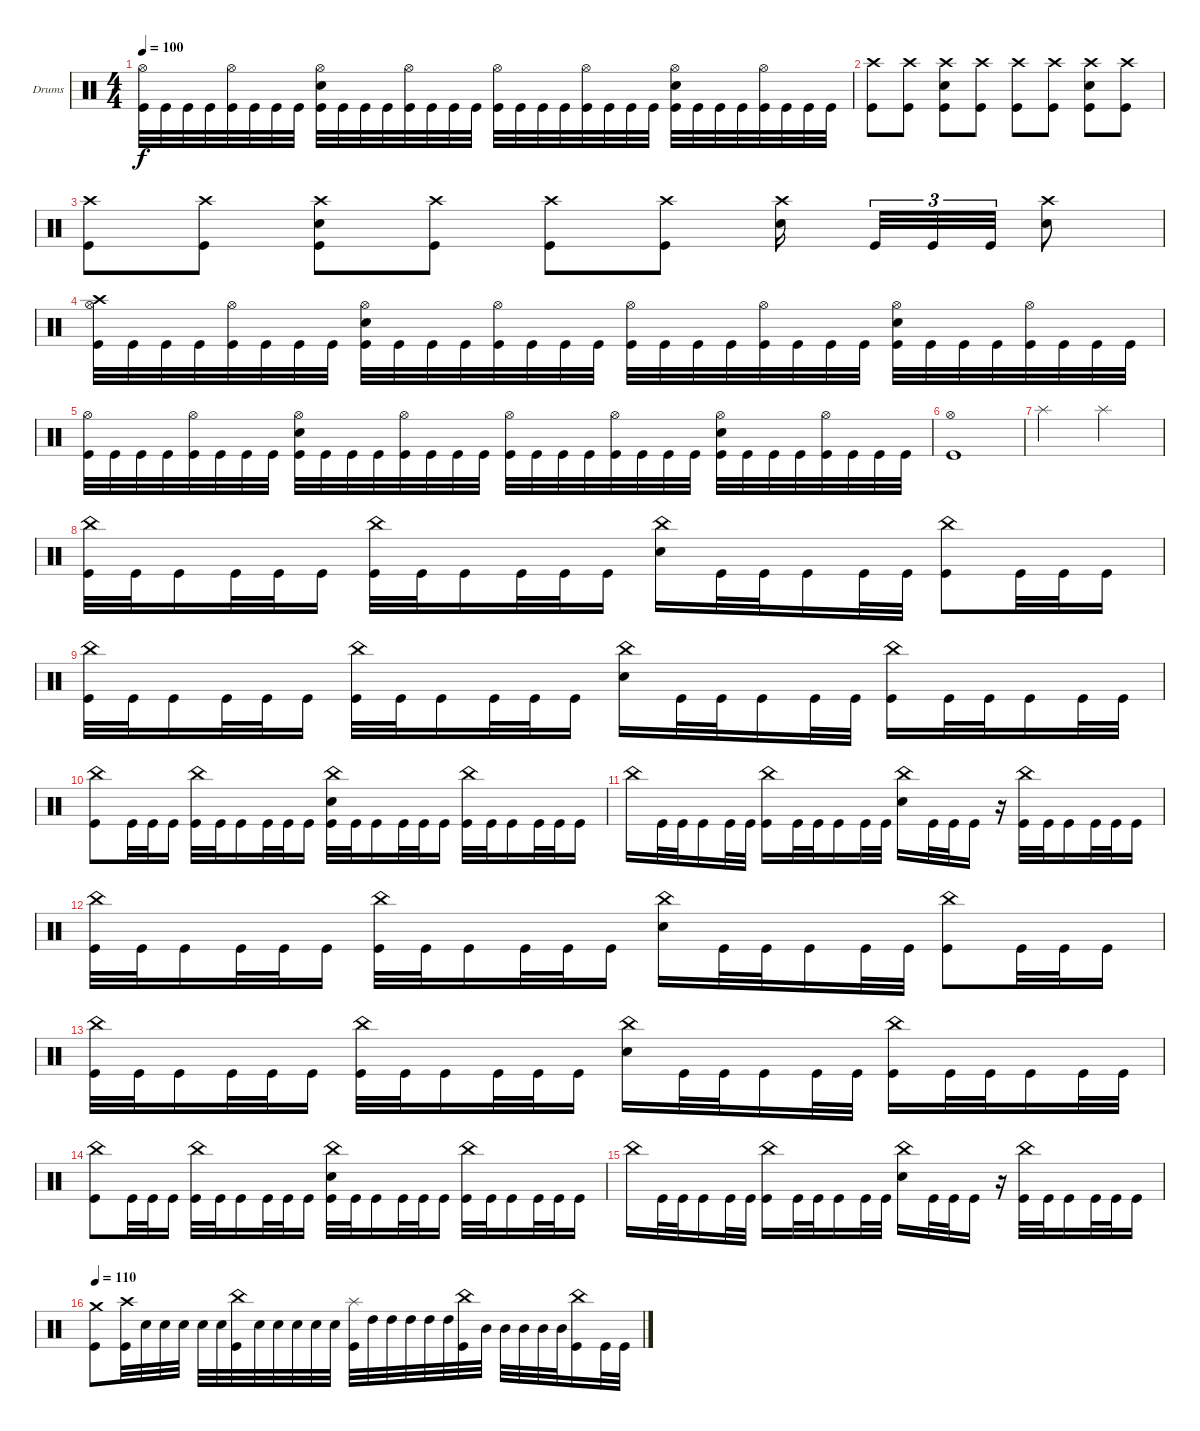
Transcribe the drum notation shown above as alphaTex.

\defaultSystemsLayout 4
\bracketExtendMode groupsimilarinstruments
\firstSystemTrackNameOrientation horizontal
\otherSystemsTrackNameOrientation horizontal
\track ("Drumkit" "Drums") {instrument percussion}
\staff {score}
\articulation defaults
\ts (4 4)
\tempo 100
\clef neutral
\scale
0.701493
\ks c
("Hi-Hat (open)" "Kick (hit)").32{dy f} "Kick (hit)".32 "Kick (hit)".32 "Kick (hit)".32 ("Hi-Hat (open)" "Kick (hit)").32 "Kick (hit)".32 "Kick (hit)".32 "Kick (hit)".32 ("Hi-Hat (open)" "Snare (hit) 2" "Kick (hit)").32 "Kick (hit)".32 "Kick (hit)".32 "Kick (hit)".32 ("Hi-Hat (open)" "Kick (hit)").32 "Kick (hit)".32 "Kick (hit)".32 "Kick (hit)".32 ("Hi-Hat (open)" "Kick (hit)").32 "Kick (hit)".32 "Kick (hit)".32 "Kick (hit)".32 ("Hi-Hat (open)" "Kick (hit)").32 "Kick (hit)".32 "Kick (hit)".32 "Kick (hit)".32 ("Hi-Hat (open)" "Snare (hit) 2" "Kick (hit)").32 "Kick (hit)".32 "Kick (hit)".32 "Kick (hit)".32 ("Hi-Hat (open)" "Kick (hit)").32 "Kick (hit)".32 "Kick (hit)".32 "Kick (hit)".32 |
\scale
0.298507 ("Crash high (hit)" "Kick (hit)").8 ("Crash high (hit)" "Kick (hit)").8 ("Crash high (hit)" "Snare (hit) 2" "Kick (hit)").8 ("Crash high (hit)" "Kick (hit)").8 ("Crash high (hit)" "Kick (hit)").8 ("Crash high (hit)" "Kick (hit)").8 ("Crash high (hit)" "Snare (hit) 2" "Kick (hit)").8 ("Crash high (hit)" "Kick (hit)").8 |
\scale
0.413417 ("Crash high (hit)" "Kick (hit)").8 ("Crash high (hit)" "Kick (hit)").8 ("Crash high (hit)" "Snare (hit) 2" "Kick (hit)").8 ("Crash high (hit)" "Kick (hit)").8 ("Crash high (hit)" "Kick (hit)").8 ("Crash high (hit)" "Kick (hit)").8 ("Crash high (hit)" "Snare (hit) 2").16 "Kick (hit)".32{tu (3 2)} "Kick (hit)".32{tu (3 2)} "Kick (hit)".32{tu (3 2)} ("Crash high (hit)" "Snare (hit) 2").8 |
\scale
0.586583 ("Crash high (hit)" "Hi-Hat (open)" "Kick (hit)").32 "Kick (hit)".32 "Kick (hit)".32 "Kick (hit)".32 ("Hi-Hat (open)" "Kick (hit)").32 "Kick (hit)".32 "Kick (hit)".32 "Kick (hit)".32 ("Hi-Hat (open)" "Snare (hit) 2" "Kick (hit)").32 "Kick (hit)".32 "Kick (hit)".32 "Kick (hit)".32 ("Hi-Hat (open)" "Kick (hit)").32 "Kick (hit)".32 "Kick (hit)".32 "Kick (hit)".32 ("Hi-Hat (open)" "Kick (hit)").32 "Kick (hit)".32 "Kick (hit)".32 "Kick (hit)".32 ("Hi-Hat (open)" "Kick (hit)").32 "Kick (hit)".32 "Kick (hit)".32 "Kick (hit)".32 ("Hi-Hat (open)" "Snare (hit) 2" "Kick (hit)").32 "Kick (hit)".32 "Kick (hit)".32 "Kick (hit)".32 ("Hi-Hat (open)" "Kick (hit)").32 "Kick (hit)".32 "Kick (hit)".32 "Kick (hit)".32 |
\scale
0.866359 ("Hi-Hat (open)" "Kick (hit)").32 "Kick (hit)".32 "Kick (hit)".32 "Kick (hit)".32 ("Hi-Hat (open)" "Kick (hit)").32 "Kick (hit)".32 "Kick (hit)".32 "Kick (hit)".32 ("Hi-Hat (open)" "Snare (hit) 2" "Kick (hit)").32 "Kick (hit)".32 "Kick (hit)".32 "Kick (hit)".32 ("Hi-Hat (open)" "Kick (hit)").32 "Kick (hit)".32 "Kick (hit)".32 "Kick (hit)".32 ("Hi-Hat (open)" "Kick (hit)").32 "Kick (hit)".32 "Kick (hit)".32 "Kick (hit)".32 ("Hi-Hat (open)" "Kick (hit)").32 "Kick (hit)".32 "Kick (hit)".32 "Kick (hit)".32 ("Hi-Hat (open)" "Snare (hit) 2" "Kick (hit)").32 "Kick (hit)".32 "Kick (hit)".32 "Kick (hit)".32 ("Hi-Hat (open)" "Kick (hit)").32 "Kick (hit)".32 "Kick (hit)".32 "Kick (hit)".32 |
\scale
0.133641 ("Hi-Hat (open)" "Kick (hit)").1 |
\scale
0.231738 "Splash (hit)".2 "Splash (hit)".2 |
\scale
0.768262 ("China (hit)" "Kick (hit)").32 "Kick (hit)".32 "Kick (hit)".16 "Kick (hit)".32 "Kick (hit)".32 "Kick (hit)".16 ("China (hit)" "Kick (hit)").32 "Kick (hit)".32 "Kick (hit)".16 "Kick (hit)".32 "Kick (hit)".32 "Kick (hit)".16 ("China (hit)" "Snare (hit) 2").16 "Kick (hit)".32 "Kick (hit)".32 "Kick (hit)".16 "Kick (hit)".32 "Kick (hit)".32 ("China (hit)" "Kick (hit)").8 "Kick (hit)".32 "Kick (hit)".32 "Kick (hit)".16 |
\scale
0.512 ("China (hit)" "Kick (hit)").32 "Kick (hit)".32 "Kick (hit)".16 "Kick (hit)".32 "Kick (hit)".32 "Kick (hit)".16 ("China (hit)" "Kick (hit)").32 "Kick (hit)".32 "Kick (hit)".16 "Kick (hit)".32 "Kick (hit)".32 "Kick (hit)".16 ("China (hit)" "Snare (hit) 2").16 "Kick (hit)".32 "Kick (hit)".32 "Kick (hit)".16 "Kick (hit)".32 "Kick (hit)".32 ("China (hit)" "Kick (hit)").16 "Kick (hit)".32 "Kick (hit)".32 "Kick (hit)".16 "Kick (hit)".32 "Kick (hit)".32 |
\scale
0.488 ("China (hit)" "Kick (hit)").8 "Kick (hit)".32 "Kick (hit)".32 "Kick (hit)".16 ("China (hit)" "Kick (hit)").32 "Kick (hit)".32 "Kick (hit)".16 "Kick (hit)".32 "Kick (hit)".32 "Kick (hit)".16 ("China (hit)" "Snare (hit) 2" "Kick (hit)").32 "Kick (hit)".32 "Kick (hit)".16 "Kick (hit)".32 "Kick (hit)".32 "Kick (hit)".16 ("China (hit)" "Kick (hit)").32 "Kick (hit)".32 "Kick (hit)".16 "Kick (hit)".32 "Kick (hit)".32 "Kick (hit)".16 |
\scale
0.506472 "China (hit)".16 "Kick (hit)".32 "Kick (hit)".32 "Kick (hit)".16 "Kick (hit)".32 "Kick (hit)".32 ("China (hit)" "Kick (hit)").16 "Kick (hit)".32 "Kick (hit)".32 "Kick (hit)".16 "Kick (hit)".32 "Kick (hit)".32 ("China (hit)" "Snare (hit) 2").16 "Kick (hit)".32 "Kick (hit)".32 "Kick (hit)".16 r.16 ("China (hit)" "Kick (hit)").32 "Kick (hit)".32 "Kick (hit)".16 "Kick (hit)".32 "Kick (hit)".32 "Kick (hit)".16 |
\scale
0.493528 ("China (hit)" "Kick (hit)").32 "Kick (hit)".32 "Kick (hit)".16 "Kick (hit)".32 "Kick (hit)".32 "Kick (hit)".16 ("China (hit)" "Kick (hit)").32 "Kick (hit)".32 "Kick (hit)".16 "Kick (hit)".32 "Kick (hit)".32 "Kick (hit)".16 ("China (hit)" "Snare (hit) 2").16 "Kick (hit)".32 "Kick (hit)".32 "Kick (hit)".16 "Kick (hit)".32 "Kick (hit)".32 ("China (hit)" "Kick (hit)").8 "Kick (hit)".32 "Kick (hit)".32 "Kick (hit)".16 |
\scale
0.512 ("China (hit)" "Kick (hit)").32 "Kick (hit)".32 "Kick (hit)".16 "Kick (hit)".32 "Kick (hit)".32 "Kick (hit)".16 ("China (hit)" "Kick (hit)").32 "Kick (hit)".32 "Kick (hit)".16 "Kick (hit)".32 "Kick (hit)".32 "Kick (hit)".16 ("China (hit)" "Snare (hit) 2").16 "Kick (hit)".32 "Kick (hit)".32 "Kick (hit)".16 "Kick (hit)".32 "Kick (hit)".32 ("China (hit)" "Kick (hit)").16 "Kick (hit)".32 "Kick (hit)".32 "Kick (hit)".16 "Kick (hit)".32 "Kick (hit)".32 |
\scale
0.488 ("China (hit)" "Kick (hit)").8 "Kick (hit)".32 "Kick (hit)".32 "Kick (hit)".16 ("China (hit)" "Kick (hit)").32 "Kick (hit)".32 "Kick (hit)".16 "Kick (hit)".32 "Kick (hit)".32 "Kick (hit)".16 ("China (hit)" "Snare (hit) 2" "Kick (hit)").32 "Kick (hit)".32 "Kick (hit)".16 "Kick (hit)".32 "Kick (hit)".32 "Kick (hit)".16 ("China (hit)" "Kick (hit)").32 "Kick (hit)".32 "Kick (hit)".16 "Kick (hit)".32 "Kick (hit)".32 "Kick (hit)".16 |
\scale
0.474242 "China (hit)".16 "Kick (hit)".32 "Kick (hit)".32 "Kick (hit)".16 "Kick (hit)".32 "Kick (hit)".32 ("China (hit)" "Kick (hit)").16 "Kick (hit)".32 "Kick (hit)".32 "Kick (hit)".16 "Kick (hit)".32 "Kick (hit)".32 ("China (hit)" "Snare (hit) 2").16 "Kick (hit)".32 "Kick (hit)".32 "Kick (hit)".16 r.16 ("China (hit)" "Kick (hit)").32 "Kick (hit)".32 "Kick (hit)".16 "Kick (hit)".32 "Kick (hit)".32 "Kick (hit)".16 |
\tempo 110
\scale
0.525758 ("Crash medium (hit)" "Kick (hit)").8 ("Crash high (hit)" "Kick (hit)").32 "Snare (hit) 2".32 "Snare (hit) 2".32 "Snare (hit) 2".32 "Snare (hit) 2".32 "Snare (hit) 2".32 ("China (hit)" "Kick (hit)").32 "Snare (hit) 2".32 "Snare (hit) 2".32 "Snare (hit) 2".32 "Snare (hit) 2".32 "Snare (hit) 2".32 ("Splash (hit)" "Kick (hit)").32 "High Tom (hit)".32 "High Tom (hit)".32 "High Tom (hit)".32 "High Tom (hit)".32 "High Tom (hit)".32 ("China (hit)" "Kick (hit)").32 "Mid Tom (hit)".32 "Mid Tom (hit)".32 "Mid Tom (hit)".32 "Mid Tom (hit)".32 "Mid Tom (hit)".32 ("China (hit)" "Kick (hit)").16 "Kick (hit)".32 "Kick (hit)".32
